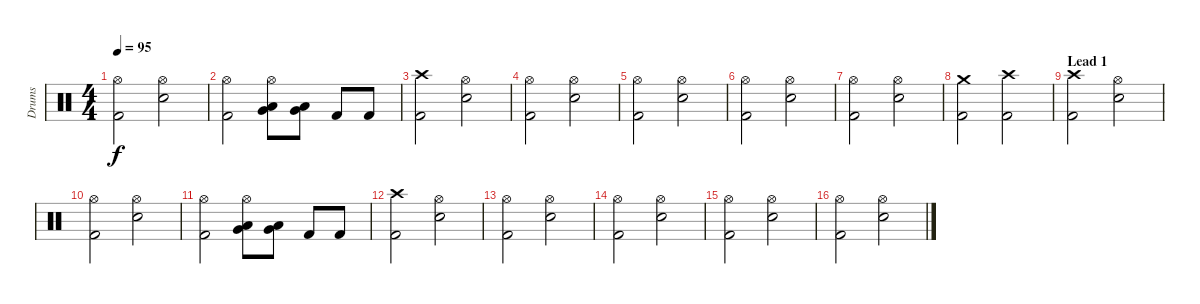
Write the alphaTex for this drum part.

\track ("Drums" "Drums") {instrument percussion}
\staff {score}
\articulation defaults
\ts (4 4)
\tempo 95
\clef neutral
\ks c
("Hi-Hat (open)" "Kick (hit) 2").2{dy f} ("Hi-Hat (open)" "Electric Snare (hit)").2 |
("Hi-Hat (open)" "Kick (hit) 2").2 ("Hi-Hat (open)" "Low Tom (hit)" "Very Low Tom (hit)").8 ("Low Tom (hit)" "Very Low Tom (hit)").8 "Kick (hit) 2".8 "Kick (hit) 2".8 |
("Crash high (hit)" "Kick (hit) 2").2 ("Hi-Hat (open)" "Electric Snare (hit)").2 |
("Hi-Hat (open)" "Kick (hit) 2").2 ("Hi-Hat (open)" "Electric Snare (hit)").2 |
("Hi-Hat (open)" "Kick (hit) 2").2 ("Hi-Hat (open)" "Electric Snare (hit)").2 |
("Hi-Hat (open)" "Kick (hit) 2").2 ("Hi-Hat (open)" "Electric Snare (hit)").2 |
("Hi-Hat (open)" "Kick (hit) 2").2 ("Hi-Hat (open)" "Electric Snare (hit)").2 |
("Crash medium (hit)" "Kick (hit) 2").2 ("Crash high (hit)" "Kick (hit) 2").2 |
\section ("" "Lead 1")
("Crash high (hit)" "Kick (hit) 2").2 ("Hi-Hat (open)" "Electric Snare (hit)").2 |
("Hi-Hat (open)" "Kick (hit) 2").2 ("Hi-Hat (open)" "Electric Snare (hit)").2 |
("Hi-Hat (open)" "Kick (hit) 2").2 ("Hi-Hat (open)" "Low Tom (hit)" "Very Low Tom (hit)").8 ("Low Tom (hit)" "Very Low Tom (hit)").8 "Kick (hit) 2".8 "Kick (hit) 2".8 |
("Crash high (hit)" "Kick (hit) 2").2 ("Hi-Hat (open)" "Electric Snare (hit)").2 |
("Hi-Hat (open)" "Kick (hit) 2").2 ("Hi-Hat (open)" "Electric Snare (hit)").2 |
("Hi-Hat (open)" "Kick (hit) 2").2 ("Hi-Hat (open)" "Electric Snare (hit)").2 |
("Hi-Hat (open)" "Kick (hit) 2").2 ("Hi-Hat (open)" "Electric Snare (hit)").2 |
("Hi-Hat (open)" "Kick (hit) 2").2 ("Hi-Hat (open)" "Electric Snare (hit)").2
